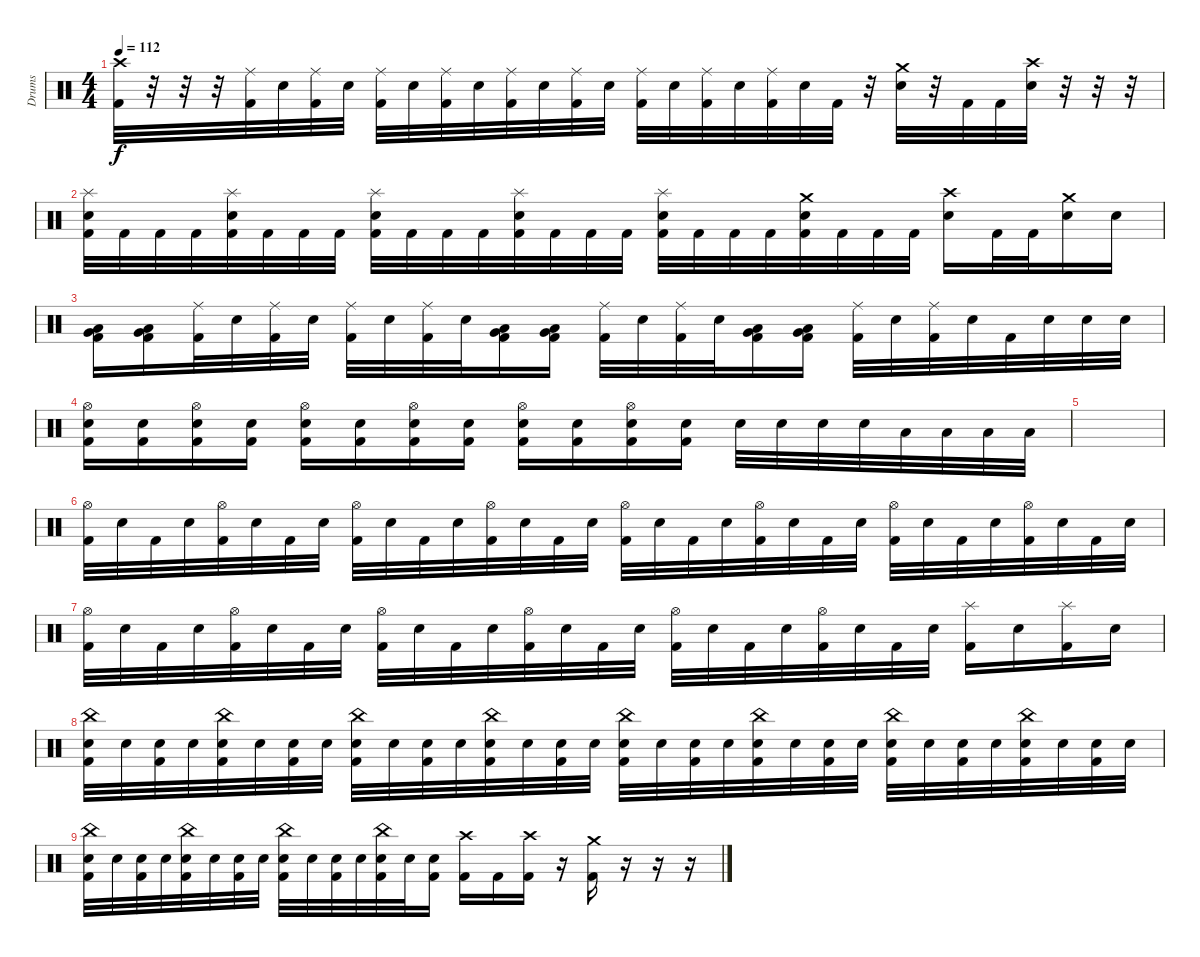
\track ("Drums" "Drums") {instrument percussion}
\staff {score}
\articulation defaults
\ts (4 4)
\tempo 112
\clef neutral
\ks c
("Crash high (hit)" "Kick (hit) 2").32{dy f} r.32 r.32 r.32 ("Ride (middle)" "Kick (hit) 2").32 "Snare (hit) 2".32 ("Ride (middle)" "Kick (hit) 2").32 "Snare (hit) 2".32 ("Ride (middle)" "Kick (hit) 2").32 "Snare (hit) 2".32 ("Ride (middle)" "Kick (hit) 2").32 "Snare (hit) 2".32 ("Ride (middle)" "Kick (hit) 2").32 "Snare (hit) 2".32 ("Ride (middle)" "Kick (hit) 2").32 "Snare (hit) 2".32 ("Ride (middle)" "Kick (hit) 2").32 "Snare (hit) 2".32 ("Ride (middle)" "Kick (hit) 2").32 "Snare (hit) 2".32 ("Ride (middle)" "Kick (hit) 2").32 "Snare (hit) 2".32 "Kick (hit) 2".32 r.32 ("Crash medium (hit)" "Snare (hit) 2").32 r.32 "Kick (hit) 2".32 "Kick (hit) 2".32 ("Crash high (hit)" "Snare (hit) 2").32 r.32 r.32 r.32 |
("Splash (hit)" "Snare (hit) 2" "Kick (hit) 2").32 "Kick (hit) 2".32 "Kick (hit) 2".32 "Kick (hit) 2".32 ("Splash (hit)" "Snare (hit) 2" "Kick (hit) 2").32 "Kick (hit) 2".32 "Kick (hit) 2".32 "Kick (hit) 2".32 ("Splash (hit)" "Snare (hit) 2" "Kick (hit) 2").32 "Kick (hit) 2".32 "Kick (hit) 2".32 "Kick (hit) 2".32 ("Splash (hit)" "Snare (hit) 2" "Kick (hit) 2").32 "Kick (hit) 2".32 "Kick (hit) 2".32 "Kick (hit) 2".32 ("Splash (hit)" "Snare (hit) 2" "Kick (hit) 2").32 "Kick (hit) 2".32 "Kick (hit) 2".32 "Kick (hit) 2".32 ("Crash medium (hit)" "Snare (hit) 2" "Kick (hit) 2").32 "Kick (hit) 2".32 "Kick (hit) 2".32 "Kick (hit) 2".32 ("Crash high (hit)" "Snare (hit) 2").16 "Kick (hit) 2".32 "Kick (hit) 2".32 ("Crash medium (hit)" "Snare (hit) 2").16 "Snare (hit) 2".16 |
("Very Low Tom (hit)" "Low Tom (hit)" "Kick (hit) 2").16 ("Very Low Tom (hit)" "Low Tom (hit)" "Kick (hit) 2").16 ("Ride (middle)" "Kick (hit) 2").32 "Snare (hit) 2".32 ("Ride (middle)" "Kick (hit) 2").32 "Snare (hit) 2".32 ("Ride (middle)" "Kick (hit) 2").32 "Snare (hit) 2".32 ("Ride (middle)" "Kick (hit) 2").32 "Snare (hit) 2".32 ("Very Low Tom (hit)" "Low Tom (hit)" "Kick (hit) 2").16 ("Very Low Tom (hit)" "Low Tom (hit)" "Kick (hit) 2").16 ("Ride (middle)" "Kick (hit) 2").32 "Snare (hit) 2".32 ("Ride (middle)" "Kick (hit) 2").32 "Snare (hit) 2".32 ("Very Low Tom (hit)" "Low Tom (hit)" "Kick (hit) 2").16 ("Very Low Tom (hit)" "Low Tom (hit)" "Kick (hit) 2").16 ("Ride (middle)" "Kick (hit) 2").32 "Snare (hit) 2".32 ("Ride (middle)" "Kick (hit) 2").32 "Snare (hit) 2".32 "Kick (hit) 2".32 "Snare (hit) 2".32 "Snare (hit) 2".32 "Snare (hit) 2".32 |
("Hi-Hat (open)" "Snare (hit) 2" "Kick (hit) 2").16 ("Snare (hit) 2" "Kick (hit) 2").16 ("Hi-Hat (open)" "Snare (hit) 2" "Kick (hit) 2").16 ("Snare (hit) 2" "Kick (hit) 2").16 ("Hi-Hat (open)" "Snare (hit) 2" "Kick (hit) 2").16 ("Snare (hit) 2" "Kick (hit) 2").16 ("Hi-Hat (open)" "Snare (hit) 2" "Kick (hit) 2").16 ("Snare (hit) 2" "Kick (hit) 2").16 ("Hi-Hat (open)" "Snare (hit) 2" "Kick (hit) 2").16 ("Snare (hit) 2" "Kick (hit) 2").16 ("Hi-Hat (open)" "Snare (hit) 2" "Kick (hit) 2").16 ("Snare (hit) 2" "Kick (hit) 2").16 "Snare (hit) 2".32 "Snare (hit) 2".32 "Snare (hit) 2".32 "Snare (hit) 2".32 "Low Tom (hit)".32 "Low Tom (hit)".32 "Low Tom (hit)".32 "Low Tom (hit)".32 |
|
("Hi-Hat (open)" "Kick (hit) 2").32 "Snare (hit) 2".32 "Kick (hit) 2".32 "Snare (hit) 2".32 ("Hi-Hat (open)" "Kick (hit) 2").32 "Snare (hit) 2".32 "Kick (hit) 2".32 "Snare (hit) 2".32 ("Hi-Hat (open)" "Kick (hit) 2").32 "Snare (hit) 2".32 "Kick (hit) 2".32 "Snare (hit) 2".32 ("Hi-Hat (open)" "Kick (hit) 2").32 "Snare (hit) 2".32 "Kick (hit) 2".32 "Snare (hit) 2".32 ("Hi-Hat (open)" "Kick (hit) 2").32 "Snare (hit) 2".32 "Kick (hit) 2".32 "Snare (hit) 2".32 ("Hi-Hat (open)" "Kick (hit) 2").32 "Snare (hit) 2".32 "Kick (hit) 2".32 "Snare (hit) 2".32 ("Hi-Hat (open)" "Kick (hit) 2").32 "Snare (hit) 2".32 "Kick (hit) 2".32 "Snare (hit) 2".32 ("Hi-Hat (open)" "Kick (hit) 2").32 "Snare (hit) 2".32 "Kick (hit) 2".32 "Snare (hit) 2".32 |
("Hi-Hat (open)" "Kick (hit) 2").32 "Snare (hit) 2".32 "Kick (hit) 2".32 "Snare (hit) 2".32 ("Hi-Hat (open)" "Kick (hit) 2").32 "Snare (hit) 2".32 "Kick (hit) 2".32 "Snare (hit) 2".32 ("Hi-Hat (open)" "Kick (hit) 2").32 "Snare (hit) 2".32 "Kick (hit) 2".32 "Snare (hit) 2".32 ("Hi-Hat (open)" "Kick (hit) 2").32 "Snare (hit) 2".32 "Kick (hit) 2".32 "Snare (hit) 2".32 ("Hi-Hat (open)" "Kick (hit) 2").32 "Snare (hit) 2".32 "Kick (hit) 2".32 "Snare (hit) 2".32 ("Hi-Hat (open)" "Kick (hit) 2").32 "Snare (hit) 2".32 "Kick (hit) 2".32 "Snare (hit) 2".32 ("Splash (hit)" "Kick (hit) 2").16 "Snare (hit) 2".16 ("Splash (hit)" "Kick (hit) 2").16 "Snare (hit) 2".16 |
("China (hit)" "Snare (hit) 2" "Kick (hit) 2").32 "Snare (hit) 2".32 ("Snare (hit) 2" "Kick (hit) 2").32 "Snare (hit) 2".32 ("China (hit)" "Snare (hit) 2" "Kick (hit) 2").32 "Snare (hit) 2".32 ("Snare (hit) 2" "Kick (hit) 2").32 "Snare (hit) 2".32 ("China (hit)" "Snare (hit) 2" "Kick (hit) 2").32 "Snare (hit) 2".32 ("Snare (hit) 2" "Kick (hit) 2").32 "Snare (hit) 2".32 ("China (hit)" "Snare (hit) 2" "Kick (hit) 2").32 "Snare (hit) 2".32 ("Snare (hit) 2" "Kick (hit) 2").32 "Snare (hit) 2".32 ("China (hit)" "Snare (hit) 2" "Kick (hit) 2").32 "Snare (hit) 2".32 ("Snare (hit) 2" "Kick (hit) 2").32 "Snare (hit) 2".32 ("China (hit)" "Snare (hit) 2" "Kick (hit) 2").32 "Snare (hit) 2".32 ("Snare (hit) 2" "Kick (hit) 2").32 "Snare (hit) 2".32 ("China (hit)" "Snare (hit) 2" "Kick (hit) 2").32 "Snare (hit) 2".32 ("Snare (hit) 2" "Kick (hit) 2").32 "Snare (hit) 2".32 ("China (hit)" "Snare (hit) 2" "Kick (hit) 2").32 "Snare (hit) 2".32 ("Snare (hit) 2" "Kick (hit) 2").32 "Snare (hit) 2".32 |
("China (hit)" "Snare (hit) 2" "Kick (hit) 2").32 "Snare (hit) 2".32 ("Snare (hit) 2" "Kick (hit) 2").32 "Snare (hit) 2".32 ("China (hit)" "Snare (hit) 2" "Kick (hit) 2").32 "Snare (hit) 2".32 ("Snare (hit) 2" "Kick (hit) 2").32 "Snare (hit) 2".32 ("China (hit)" "Snare (hit) 2" "Kick (hit) 2").32 "Snare (hit) 2".32 ("Snare (hit) 2" "Kick (hit) 2").32 "Snare (hit) 2".32 ("China (hit)" "Snare (hit) 2" "Kick (hit) 2").32 "Snare (hit) 2".32 ("Snare (hit) 2" "Kick (hit) 2").16 ("Crash high (hit)" "Kick (hit) 2").16 "Kick (hit) 2".16 ("Crash high (hit)" "Kick (hit) 2").16 r.16 ("Crash medium (hit)" "Kick (hit) 2").16 r.16 r.16 r.16
